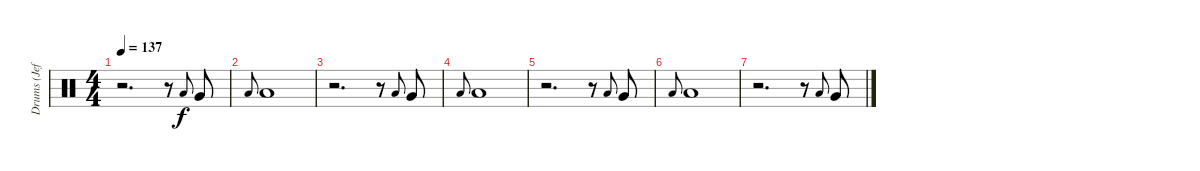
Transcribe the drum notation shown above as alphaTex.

\track ("Drums (Jeff)" "Drums (Jef") {instrument percussion}
\staff {score}
\articulation defaults
\ts (4 4)
\tempo 137
\clef neutral
\ks c
r.2{d dy f} r.8 "Low Tom (hit)"{h}.8{gr onbeat} "Very Low Tom (hit)".8 |
"Low Tom (hit)"{h}.8{gr onbeat} "Low Tom (hit)".1 |
r.2{d} r.8 "Low Tom (hit)"{h}.8{gr onbeat} "Very Low Tom (hit)".8 |
"Low Tom (hit)"{h}.8{gr onbeat} "Low Tom (hit)".1 |
r.2{d} r.8 "Low Tom (hit)"{h}.8{gr onbeat} "Very Low Tom (hit)".8 |
"Low Tom (hit)"{h}.8{gr onbeat} "Low Tom (hit)".1 |
r.2{d} r.8 "Low Tom (hit)"{h}.8{gr onbeat} "Very Low Tom (hit)".8
